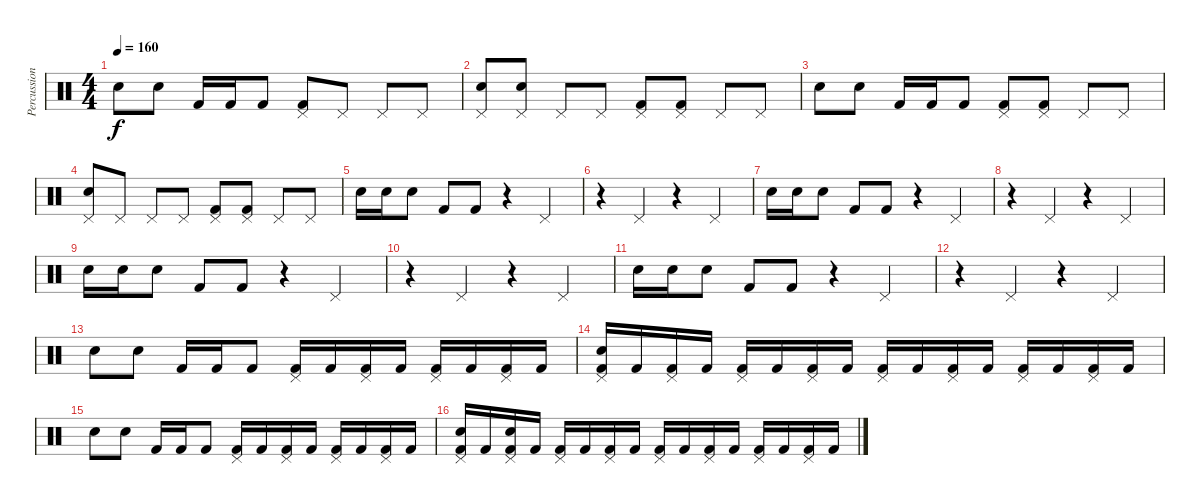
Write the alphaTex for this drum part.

\track ("Percussion" "Percussion") {instrument percussion}
\staff {score}
\articulation defaults
\ts (4 4)
\tempo 160
\clef neutral
\ks c "Snare (hit) 2".8{dy f} "Snare (hit) 2".8 "Kick (hit) 2".16 "Kick (hit) 2".16 "Kick (hit) 2".8
("Pedal Hi-Hat (hit)" "Kick (hit) 2").8 "Pedal Hi-Hat (hit)".8 "Pedal Hi-Hat (hit)".8 "Pedal Hi-Hat (hit)".8 |
("Pedal Hi-Hat (hit)" "Snare (hit) 2").8 ("Pedal Hi-Hat (hit)" "Snare (hit) 2").8 "Pedal Hi-Hat (hit)".8 "Pedal Hi-Hat (hit)".8 ("Pedal Hi-Hat (hit)" "Kick (hit) 2").8 ("Pedal Hi-Hat (hit)" "Kick (hit) 2").8 "Pedal Hi-Hat (hit)".8 "Pedal Hi-Hat (hit)".8 |
"Snare (hit) 2".8 "Snare (hit) 2".8 "Kick (hit) 2".16 "Kick (hit) 2".16 "Kick (hit) 2".8 ("Pedal Hi-Hat (hit)" "Kick (hit) 2").8 ("Pedal Hi-Hat (hit)" "Kick (hit) 2").8 "Pedal Hi-Hat (hit)".8 "Pedal Hi-Hat (hit)".8 |
("Pedal Hi-Hat (hit)" "Snare (hit) 2").8 "Pedal Hi-Hat (hit)".8 "Pedal Hi-Hat (hit)".8 "Pedal Hi-Hat (hit)".8 ("Pedal Hi-Hat (hit)" "Kick (hit) 2").8 ("Pedal Hi-Hat (hit)" "Kick (hit) 2").8 "Pedal Hi-Hat (hit)".8 "Pedal Hi-Hat (hit)".8 |
"Snare (hit) 2".16 "Snare (hit) 2".16 "Snare (hit) 2".8 "Kick (hit) 2".8 "Kick (hit) 2".8 r.4 "Pedal Hi-Hat (hit)".4 |
r.4 "Pedal Hi-Hat (hit)".4 r.4 "Pedal Hi-Hat (hit)".4 |
"Snare (hit) 2".16 "Snare (hit) 2".16 "Snare (hit) 2".8 "Kick (hit) 2".8 "Kick (hit) 2".8 r.4 "Pedal Hi-Hat (hit)".4 |
r.4 "Pedal Hi-Hat (hit)".4 r.4 "Pedal Hi-Hat (hit)".4 |
"Snare (hit) 2".16 "Snare (hit) 2".16 "Snare (hit) 2".8 "Kick (hit) 2".8 "Kick (hit) 2".8 r.4 "Pedal Hi-Hat (hit)".4 |
r.4 "Pedal Hi-Hat (hit)".4 r.4 "Pedal Hi-Hat (hit)".4 |
"Snare (hit) 2".16 "Snare (hit) 2".16 "Snare (hit) 2".8 "Kick (hit) 2".8 "Kick (hit) 2".8 r.4 "Pedal Hi-Hat (hit)".4 |
r.4 "Pedal Hi-Hat (hit)".4 r.4 "Pedal Hi-Hat (hit)".4 |
"Snare (hit) 2".8 "Snare (hit) 2".8 "Kick (hit) 2".16 "Kick (hit) 2".16 "Kick (hit) 2".8 ("Pedal Hi-Hat (hit)" "Kick (hit) 2").16 "Kick (hit) 2".16 ("Pedal Hi-Hat (hit)" "Kick (hit) 2").16 "Kick (hit) 2".16 ("Pedal Hi-Hat (hit)" "Kick (hit) 2").16 "Kick (hit) 2".16 ("Pedal Hi-Hat (hit)" "Kick (hit) 2").16 "Kick (hit) 2".16 |
("Pedal Hi-Hat (hit)" "Snare (hit) 2" "Kick (hit) 2").16 "Kick (hit) 2".16 ("Pedal Hi-Hat (hit)" "Kick (hit) 2").16 "Kick (hit) 2".16 ("Pedal Hi-Hat (hit)" "Kick (hit) 2").16 "Kick (hit) 2".16 ("Pedal Hi-Hat (hit)" "Kick (hit) 2").16 "Kick (hit) 2".16 ("Pedal Hi-Hat (hit)" "Kick (hit) 2").16 "Kick (hit) 2".16 ("Pedal Hi-Hat (hit)" "Kick (hit) 2").16 "Kick (hit) 2".16 ("Pedal Hi-Hat (hit)" "Kick (hit) 2").16 "Kick (hit) 2".16 ("Pedal Hi-Hat (hit)" "Kick (hit) 2").16 "Kick (hit) 2".16 |
"Snare (hit) 2".8 "Snare (hit) 2".8 "Kick (hit) 2".16 "Kick (hit) 2".16 "Kick (hit) 2".8 ("Pedal Hi-Hat (hit)" "Kick (hit) 2").16 "Kick (hit) 2".16 ("Pedal Hi-Hat (hit)" "Kick (hit) 2").16 "Kick (hit) 2".16 ("Pedal Hi-Hat (hit)" "Kick (hit) 2").16 "Kick (hit) 2".16 ("Pedal Hi-Hat (hit)" "Kick (hit) 2").16 "Kick (hit) 2".16 |
("Pedal Hi-Hat (hit)" "Snare (hit) 2" "Kick (hit) 2").16 "Kick (hit) 2".16 ("Pedal Hi-Hat (hit)" "Snare (hit) 2" "Kick (hit) 2").16 "Kick (hit) 2".16 ("Pedal Hi-Hat (hit)" "Kick (hit) 2").16 "Kick (hit) 2".16 ("Pedal Hi-Hat (hit)" "Kick (hit) 2").16 "Kick (hit) 2".16 ("Pedal Hi-Hat (hit)" "Kick (hit) 2").16 "Kick (hit) 2".16 ("Pedal Hi-Hat (hit)" "Kick (hit) 2").16 "Kick (hit) 2".16 ("Pedal Hi-Hat (hit)" "Kick (hit) 2").16 "Kick (hit) 2".16 ("Pedal Hi-Hat (hit)" "Kick (hit) 2").16 "Kick (hit) 2".16
